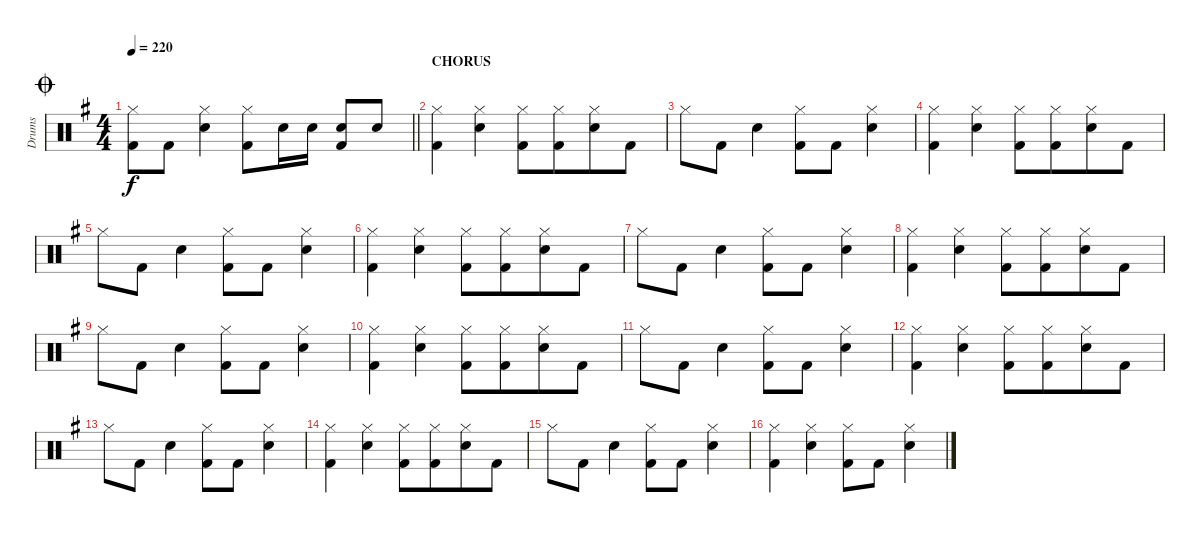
\track ("Drums" "Drums") {instrument percussion}
\staff {score}
\articulation defaults
\ts (4 4)
\jump coda
\tempo 220
\clef neutral
\barLineRight lightlight
\ks eminor
("Hi-Hat (closed)" "Kick (hit) 2").8{dy f} "Kick (hit) 2".8 ("Hi-Hat (closed)" "Electric Snare (hit)").4 ("Hi-Hat (closed)" "Kick (hit) 2").8 "Electric Snare (hit)".16 "Electric Snare (hit)".16 ("Electric Snare (hit)" "Kick (hit) 2").8 "Electric Snare (hit)".8 |
\section ("" "CHORUS")
("Hi-Hat (closed)" "Kick (hit) 2").4 ("Hi-Hat (closed)" "Electric Snare (hit)").4 ("Hi-Hat (closed)" "Kick (hit) 2").8 ("Hi-Hat (closed)" "Kick (hit) 2").8{beam merge} ("Hi-Hat (closed)" "Electric Snare (hit)").8 "Kick (hit) 2".8 |
"Hi-Hat (closed)".8 "Kick (hit) 2".8 "Electric Snare (hit)".4 ("Hi-Hat (closed)" "Kick (hit) 2").8 "Kick (hit) 2".8 ("Hi-Hat (closed)" "Electric Snare (hit)").4 |
("Hi-Hat (closed)" "Kick (hit) 2").4 ("Hi-Hat (closed)" "Electric Snare (hit)").4 ("Hi-Hat (closed)" "Kick (hit) 2").8 ("Hi-Hat (closed)" "Kick (hit) 2").8{beam merge} ("Hi-Hat (closed)" "Electric Snare (hit)").8 "Kick (hit) 2".8 |
"Hi-Hat (closed)".8 "Kick (hit) 2".8 "Electric Snare (hit)".4 ("Hi-Hat (closed)" "Kick (hit) 2").8 "Kick (hit) 2".8 ("Hi-Hat (closed)" "Electric Snare (hit)").4 |
("Hi-Hat (closed)" "Kick (hit) 2").4 ("Hi-Hat (closed)" "Electric Snare (hit)").4 ("Hi-Hat (closed)" "Kick (hit) 2").8 ("Hi-Hat (closed)" "Kick (hit) 2").8{beam merge} ("Hi-Hat (closed)" "Electric Snare (hit)").8 "Kick (hit) 2".8 |
"Hi-Hat (closed)".8 "Kick (hit) 2".8 "Electric Snare (hit)".4 ("Hi-Hat (closed)" "Kick (hit) 2").8 "Kick (hit) 2".8 ("Hi-Hat (closed)" "Electric Snare (hit)").4 |
("Hi-Hat (closed)" "Kick (hit) 2").4 ("Hi-Hat (closed)" "Electric Snare (hit)").4 ("Hi-Hat (closed)" "Kick (hit) 2").8 ("Hi-Hat (closed)" "Kick (hit) 2").8{beam merge} ("Hi-Hat (closed)" "Electric Snare (hit)").8 "Kick (hit) 2".8 |
"Hi-Hat (closed)".8 "Kick (hit) 2".8 "Electric Snare (hit)".4 ("Hi-Hat (closed)" "Kick (hit) 2").8 "Kick (hit) 2".8 ("Hi-Hat (closed)" "Electric Snare (hit)").4 |
("Hi-Hat (closed)" "Kick (hit) 2").4 ("Hi-Hat (closed)" "Electric Snare (hit)").4 ("Hi-Hat (closed)" "Kick (hit) 2").8 ("Hi-Hat (closed)" "Kick (hit) 2").8{beam merge} ("Hi-Hat (closed)" "Electric Snare (hit)").8 "Kick (hit) 2".8 |
"Hi-Hat (closed)".8 "Kick (hit) 2".8 "Electric Snare (hit)".4 ("Hi-Hat (closed)" "Kick (hit) 2").8 "Kick (hit) 2".8 ("Hi-Hat (closed)" "Electric Snare (hit)").4 |
("Hi-Hat (closed)" "Kick (hit) 2").4 ("Hi-Hat (closed)" "Electric Snare (hit)").4 ("Hi-Hat (closed)" "Kick (hit) 2").8 ("Hi-Hat (closed)" "Kick (hit) 2").8{beam merge} ("Hi-Hat (closed)" "Electric Snare (hit)").8 "Kick (hit) 2".8 |
"Hi-Hat (closed)".8 "Kick (hit) 2".8 "Electric Snare (hit)".4 ("Hi-Hat (closed)" "Kick (hit) 2").8 "Kick (hit) 2".8 ("Hi-Hat (closed)" "Electric Snare (hit)").4 |
("Hi-Hat (closed)" "Kick (hit) 2").4 ("Hi-Hat (closed)" "Electric Snare (hit)").4 ("Hi-Hat (closed)" "Kick (hit) 2").8 ("Hi-Hat (closed)" "Kick (hit) 2").8{beam merge} ("Hi-Hat (closed)" "Electric Snare (hit)").8 "Kick (hit) 2".8 |
"Hi-Hat (closed)".8 "Kick (hit) 2".8 "Electric Snare (hit)".4 ("Hi-Hat (closed)" "Kick (hit) 2").8 "Kick (hit) 2".8 ("Hi-Hat (closed)" "Electric Snare (hit)").4 |
("Hi-Hat (closed)" "Kick (hit) 2").4 ("Hi-Hat (closed)" "Electric Snare (hit)").4 ("Hi-Hat (closed)" "Kick (hit) 2").8 "Kick (hit) 2".8{beam merge} ("Hi-Hat (closed)" "Electric Snare (hit)").4
